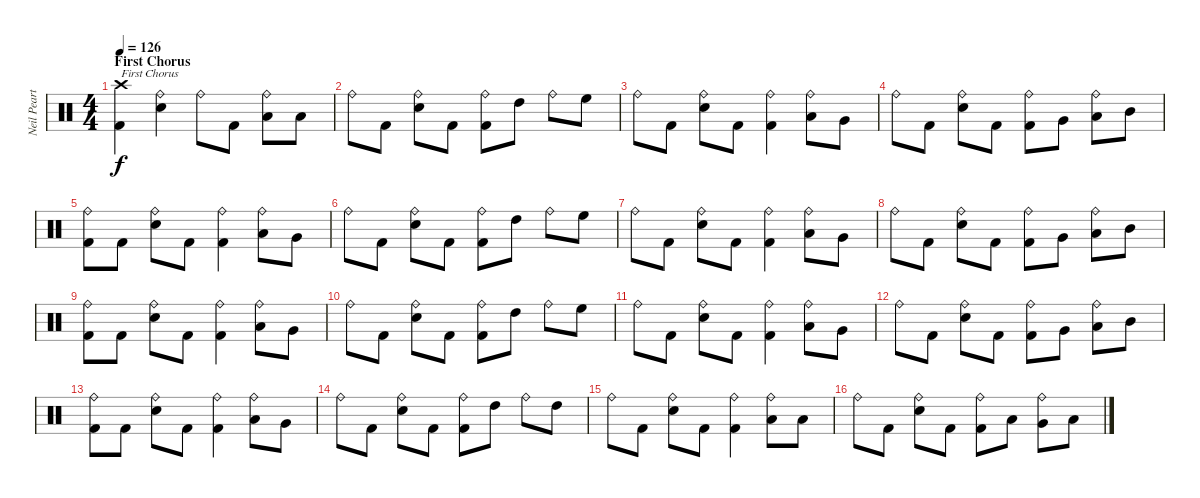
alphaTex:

\track ("Neil Peart" "Neil Peart") {instrument percussion}
\staff {score}
\articulation defaults
\ts (4 4)
\section ("" "First Chorus")
\tempo 126
\clef neutral
\ks c
("Crash high (hit)" "Kick (hit) 2").4{txt "First Chorus" dy f} ("Electric Snare (hit)" "Ride (bell)").4 "Ride (bell)".8 "Kick (hit) 2".8 ("Ride (bell)" "Low Floor Tom (hit)").8 "Low Floor Tom (hit)".8 |
"Ride (bell)".8 "Kick (hit) 2".8 ("Electric Snare (hit)" "Ride (bell)").8 "Kick (hit) 2".8 ("Ride (bell)" "Kick (hit) 2").8 "High Tom (hit)".8 "Ride (bell)".8 "High Floor Tom (hit)".8 |
"Ride (bell)".8 "Kick (hit) 2".8 ("Electric Snare (hit)" "Ride (bell)").8 "Kick (hit) 2".8 ("Ride (bell)" "Kick (hit) 2").4 ("Ride (bell)" "Low Floor Tom (hit)").8 "Very Low Tom (hit)".8 |
"Ride (bell)".8 "Kick (hit) 2".8 ("Electric Snare (hit)" "Ride (bell)").8 "Kick (hit) 2".8 ("Ride (bell)" "Kick (hit) 2").8 "Very Low Tom (hit)".8 ("Ride (bell)" "Low Tom (hit)").8 "Mid Tom (hit)".8 |
("Ride (bell)" "Kick (hit) 2").8 "Kick (hit) 2".8 ("Electric Snare (hit)" "Ride (bell)").8 "Kick (hit) 2".8 ("Ride (bell)" "Kick (hit) 2").4 ("Ride (bell)" "Low Floor Tom (hit)").8 "Very Low Tom (hit)".8 |
"Ride (bell)".8 "Kick (hit) 2".8 ("Electric Snare (hit)" "Ride (bell)").8 "Kick (hit) 2".8 ("Ride (bell)" "Kick (hit) 2").8 "High Tom (hit)".8 "Ride (bell)".8 "High Floor Tom (hit)".8 |
"Ride (bell)".8 "Kick (hit) 2".8 ("Electric Snare (hit)" "Ride (bell)").8 "Kick (hit) 2".8 ("Ride (bell)" "Kick (hit) 2").4 ("Ride (bell)" "Low Floor Tom (hit)").8 "Very Low Tom (hit)".8 |
"Ride (bell)".8 "Kick (hit) 2".8 ("Electric Snare (hit)" "Ride (bell)").8 "Kick (hit) 2".8 ("Ride (bell)" "Kick (hit) 2").8 "Very Low Tom (hit)".8 ("Ride (bell)" "Low Tom (hit)").8 "Mid Tom (hit)".8 |
("Ride (bell)" "Kick (hit) 2").8 "Kick (hit) 2".8 ("Electric Snare (hit)" "Ride (bell)").8 "Kick (hit) 2".8 ("Ride (bell)" "Kick (hit) 2").4 ("Ride (bell)" "Low Floor Tom (hit)").8 "Very Low Tom (hit)".8 |
"Ride (bell)".8 "Kick (hit) 2".8 ("Electric Snare (hit)" "Ride (bell)").8 "Kick (hit) 2".8 ("Ride (bell)" "Kick (hit) 2").8 "High Tom (hit)".8 "Ride (bell)".8 "High Floor Tom (hit)".8 |
"Ride (bell)".8 "Kick (hit) 2".8 ("Electric Snare (hit)" "Ride (bell)").8 "Kick (hit) 2".8 ("Ride (bell)" "Kick (hit) 2").4 ("Ride (bell)" "Low Floor Tom (hit)").8 "Very Low Tom (hit)".8 |
"Ride (bell)".8 "Kick (hit) 2".8 ("Electric Snare (hit)" "Ride (bell)").8 "Kick (hit) 2".8 ("Ride (bell)" "Kick (hit) 2").8 "Very Low Tom (hit)".8 ("Ride (bell)" "Low Tom (hit)").8 "Mid Tom (hit)".8 |
("Ride (bell)" "Kick (hit) 2").8 "Kick (hit) 2".8 ("Electric Snare (hit)" "Ride (bell)").8 "Kick (hit) 2".8 ("Ride (bell)" "Kick (hit) 2").4 ("Ride (bell)" "Low Floor Tom (hit)").8 "Very Low Tom (hit)".8 |
"Ride (bell)".8 "Kick (hit) 2".8 ("Electric Snare (hit)" "Ride (bell)").8 "Kick (hit) 2".8 ("Ride (bell)" "Kick (hit) 2").8 "High Tom (hit)".8 "Ride (bell)".8 "High Tom (hit)".8 |
"Ride (bell)".8 "Kick (hit) 2".8 ("Electric Snare (hit)" "Ride (bell)").8 "Kick (hit) 2".8 ("Ride (bell)" "Kick (hit) 2").4 ("Ride (bell)" "Low Floor Tom (hit)").8 "Low Floor Tom (hit)".8 |
"Ride (bell)".8 "Kick (hit) 2".8 ("Electric Snare (hit)" "Ride (bell)").8 "Kick (hit) 2".8 ("Ride (bell)" "Kick (hit) 2").8 "Low Floor Tom (hit)".8 ("Ride (bell)" "Very Low Tom (hit)").8 "Low Tom (hit)".8
